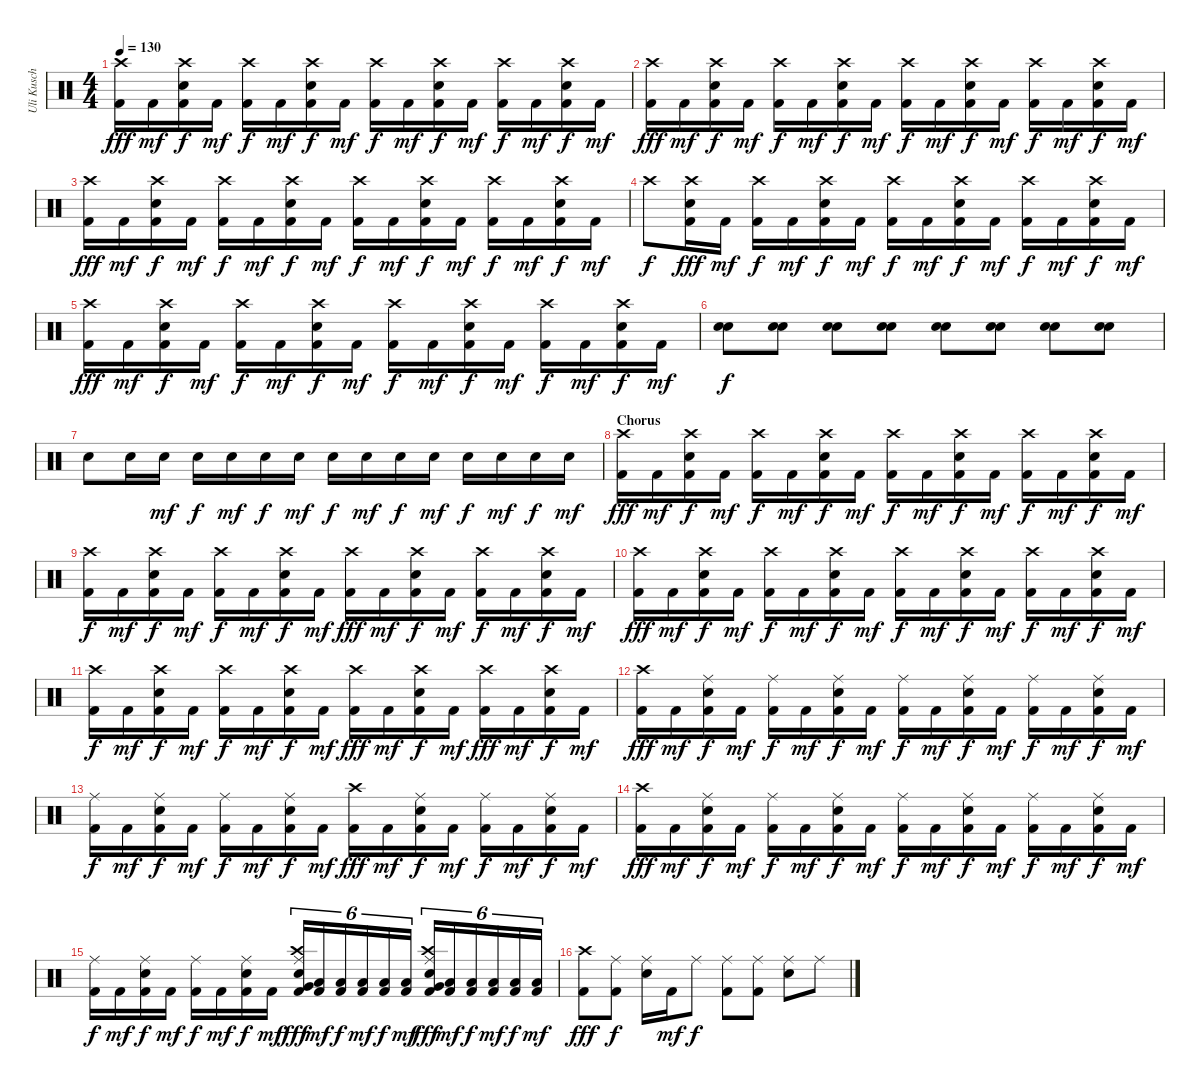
\track ("Uli Kusch" "Uli Kusch") {instrument percussion}
\staff {score}
\articulation defaults
\ts (4 4)
\tempo 130
\clef neutral
\ks c
("Kick (hit) 2" "Crash high (hit)").16{dy fff} "Kick (hit) 2".16{dy mf} ("Kick (hit) 2" "Electric Snare (hit)" "Crash high (hit)").16{dy f} "Kick (hit) 2".16{dy mf} ("Kick (hit) 2" "Crash high (hit)").16{dy f} "Kick (hit) 2".16{dy mf} ("Kick (hit) 2" "Electric Snare (hit)" "Crash high (hit)").16{dy f} "Kick (hit) 2".16{dy mf} ("Kick (hit) 2" "Crash high (hit)").16{dy f} "Kick (hit) 2".16{dy mf} ("Kick (hit) 2" "Electric Snare (hit)" "Crash high (hit)").16{dy f} "Kick (hit) 2".16{dy mf} ("Kick (hit) 2" "Crash high (hit)").16{dy f} "Kick (hit) 2".16{dy mf} ("Kick (hit) 2" "Electric Snare (hit)" "Crash high (hit)").16{dy f} "Kick (hit) 2".16{dy mf} |
("Kick (hit) 2" "Crash high (hit)").16{dy fff} "Kick (hit) 2".16{dy mf} ("Kick (hit) 2" "Electric Snare (hit)" "Crash high (hit)").16{dy f} "Kick (hit) 2".16{dy mf} ("Kick (hit) 2" "Crash high (hit)").16{dy f} "Kick (hit) 2".16{dy mf} ("Kick (hit) 2" "Electric Snare (hit)" "Crash high (hit)").16{dy f} "Kick (hit) 2".16{dy mf} ("Kick (hit) 2" "Crash high (hit)").16{dy f} "Kick (hit) 2".16{dy mf} ("Kick (hit) 2" "Electric Snare (hit)" "Crash high (hit)").16{dy f} "Kick (hit) 2".16{dy mf} ("Kick (hit) 2" "Crash high (hit)").16{dy f} "Kick (hit) 2".16{dy mf} ("Kick (hit) 2" "Electric Snare (hit)" "Crash high (hit)").16{dy f} "Kick (hit) 2".16{dy mf} |
("Kick (hit) 2" "Crash high (hit)").16{dy fff} "Kick (hit) 2".16{dy mf} ("Kick (hit) 2" "Electric Snare (hit)" "Crash high (hit)").16{dy f} "Kick (hit) 2".16{dy mf} ("Kick (hit) 2" "Crash high (hit)").16{dy f} "Kick (hit) 2".16{dy mf} ("Kick (hit) 2" "Electric Snare (hit)" "Crash high (hit)").16{dy f} "Kick (hit) 2".16{dy mf} ("Kick (hit) 2" "Crash high (hit)").16{dy f} "Kick (hit) 2".16{dy mf} ("Kick (hit) 2" "Electric Snare (hit)" "Crash high (hit)").16{dy f} "Kick (hit) 2".16{dy mf} ("Kick (hit) 2" "Crash high (hit)").16{dy f} "Kick (hit) 2".16{dy mf} ("Kick (hit) 2" "Electric Snare (hit)" "Crash high (hit)").16{dy f} "Kick (hit) 2".16{dy mf} |
"Crash high (hit)".8{dy f} ("Kick (hit) 2" "Electric Snare (hit)" "Crash high (hit)").16{dy fff} "Kick (hit) 2".16{dy mf} ("Kick (hit) 2" "Crash high (hit)").16{dy f} "Kick (hit) 2".16{dy mf} ("Kick (hit) 2" "Electric Snare (hit)" "Crash high (hit)").16{dy f} "Kick (hit) 2".16{dy mf} ("Kick (hit) 2" "Crash high (hit)").16{dy f} "Kick (hit) 2".16{dy mf} ("Kick (hit) 2" "Electric Snare (hit)" "Crash high (hit)").16{dy f} "Kick (hit) 2".16{dy mf} ("Kick (hit) 2" "Crash high (hit)").16{dy f} "Kick (hit) 2".16{dy mf} ("Kick (hit) 2" "Electric Snare (hit)" "Crash high (hit)").16{dy f} "Kick (hit) 2".16{dy mf} |
("Kick (hit) 2" "Crash high (hit)").16{dy fff} "Kick (hit) 2".16{dy mf} ("Kick (hit) 2" "Electric Snare (hit)" "Crash high (hit)").16{dy f} "Kick (hit) 2".16{dy mf} ("Kick (hit) 2" "Crash high (hit)").16{dy f} "Kick (hit) 2".16{dy mf} ("Kick (hit) 2" "Electric Snare (hit)" "Crash high (hit)").16{dy f} "Kick (hit) 2".16{dy mf} ("Kick (hit) 2" "Crash high (hit)").16{dy f} "Kick (hit) 2".16{dy mf} ("Kick (hit) 2" "Electric Snare (hit)" "Crash high (hit)").16{dy f} "Kick (hit) 2".16{dy mf} ("Kick (hit) 2" "Crash high (hit)").16{dy f} "Kick (hit) 2".16{dy mf} ("Kick (hit) 2" "Electric Snare (hit)" "Crash high (hit)").16{dy f} "Kick (hit) 2".16{dy mf} |
("Electric Snare (hit)" "Snare (hit) 2").8{dy f} ("Electric Snare (hit)" "Snare (hit) 2").8 ("Electric Snare (hit)" "Snare (hit) 2").8 ("Electric Snare (hit)" "Snare (hit) 2").8 ("Electric Snare (hit)" "Snare (hit) 2").8 ("Electric Snare (hit)" "Snare (hit) 2").8 ("Electric Snare (hit)" "Snare (hit) 2").8 ("Electric Snare (hit)" "Snare (hit) 2").8 |
"Electric Snare (hit)".8 "Electric Snare (hit)".16 "Electric Snare (hit)".16{dy mf} "Electric Snare (hit)".16{dy f} "Electric Snare (hit)".16{dy mf} "Electric Snare (hit)".16{dy f} "Electric Snare (hit)".16{dy mf} "Electric Snare (hit)".16{dy f} "Electric Snare (hit)".16{dy mf} "Electric Snare (hit)".16{dy f} "Electric Snare (hit)".16{dy mf} "Electric Snare (hit)".16{dy f} "Electric Snare (hit)".16{dy mf} "Electric Snare (hit)".16{dy f} "Electric Snare (hit)".16{dy mf} |
\section ("" "Chorus")
("Kick (hit) 2" "Crash high (hit)").16{dy fff} "Kick (hit) 2".16{dy mf} ("Kick (hit) 2" "Electric Snare (hit)" "Crash high (hit)").16{dy f} "Kick (hit) 2".16{dy mf} ("Kick (hit) 2" "Crash high (hit)").16{dy f} "Kick (hit) 2".16{dy mf} ("Kick (hit) 2" "Electric Snare (hit)" "Crash high (hit)").16{dy f} "Kick (hit) 2".16{dy mf} ("Kick (hit) 2" "Crash high (hit)").16{dy f} "Kick (hit) 2".16{dy mf} ("Kick (hit) 2" "Electric Snare (hit)" "Crash high (hit)").16{dy f} "Kick (hit) 2".16{dy mf} ("Kick (hit) 2" "Crash high (hit)").16{dy f} "Kick (hit) 2".16{dy mf} ("Kick (hit) 2" "Electric Snare (hit)" "Crash high (hit)").16{dy f} "Kick (hit) 2".16{dy mf} |
("Kick (hit) 2" "Crash high (hit)").16{dy f} "Kick (hit) 2".16{dy mf} ("Kick (hit) 2" "Electric Snare (hit)" "Crash high (hit)").16{dy f} "Kick (hit) 2".16{dy mf} ("Kick (hit) 2" "Crash high (hit)").16{dy f} "Kick (hit) 2".16{dy mf} ("Kick (hit) 2" "Electric Snare (hit)" "Crash high (hit)").16{dy f} "Kick (hit) 2".16{dy mf} ("Kick (hit) 2" "Crash high (hit)").16{dy fff} "Kick (hit) 2".16{dy mf} ("Kick (hit) 2" "Electric Snare (hit)" "Crash high (hit)").16{dy f} "Kick (hit) 2".16{dy mf} ("Kick (hit) 2" "Crash high (hit)").16{dy f} "Kick (hit) 2".16{dy mf} ("Kick (hit) 2" "Electric Snare (hit)" "Crash high (hit)").16{dy f} "Kick (hit) 2".16{dy mf} |
("Kick (hit) 2" "Crash high (hit)").16{dy fff} "Kick (hit) 2".16{dy mf} ("Kick (hit) 2" "Electric Snare (hit)" "Crash high (hit)").16{dy f} "Kick (hit) 2".16{dy mf} ("Kick (hit) 2" "Crash high (hit)").16{dy f} "Kick (hit) 2".16{dy mf} ("Kick (hit) 2" "Electric Snare (hit)" "Crash high (hit)").16{dy f} "Kick (hit) 2".16{dy mf} ("Kick (hit) 2" "Crash high (hit)").16{dy f} "Kick (hit) 2".16{dy mf} ("Kick (hit) 2" "Electric Snare (hit)" "Crash high (hit)").16{dy f} "Kick (hit) 2".16{dy mf} ("Kick (hit) 2" "Crash high (hit)").16{dy f} "Kick (hit) 2".16{dy mf} ("Kick (hit) 2" "Electric Snare (hit)" "Crash high (hit)").16{dy f} "Kick (hit) 2".16{dy mf} |
("Kick (hit) 2" "Crash high (hit)").16{dy f} "Kick (hit) 2".16{dy mf} ("Kick (hit) 2" "Electric Snare (hit)" "Crash high (hit)").16{dy f} "Kick (hit) 2".16{dy mf} ("Kick (hit) 2" "Crash high (hit)").16{dy f} "Kick (hit) 2".16{dy mf} ("Kick (hit) 2" "Electric Snare (hit)" "Crash high (hit)").16{dy f} "Kick (hit) 2".16{dy mf} ("Kick (hit) 2" "Crash high (hit)").16{dy fff} "Kick (hit) 2".16{dy mf} ("Kick (hit) 2" "Electric Snare (hit)" "Crash high (hit)").16{dy f} "Kick (hit) 2".16{dy mf} ("Kick (hit) 2" "Crash high (hit)").16{dy fff} "Kick (hit) 2".16{dy mf} ("Kick (hit) 2" "Electric Snare (hit)" "Crash high (hit)").16{dy f} "Kick (hit) 2".16{dy mf} |
("Kick (hit) 2" "Crash high (hit)").16{dy fff} "Kick (hit) 2".16{dy mf} ("Kick (hit) 2" "Electric Snare (hit)" "Ride (middle)").16{dy f} "Kick (hit) 2".16{dy mf} ("Kick (hit) 2" "Ride (middle)").16{dy f} "Kick (hit) 2".16{dy mf} ("Kick (hit) 2" "Electric Snare (hit)" "Ride (middle)").16{dy f} "Kick (hit) 2".16{dy mf} ("Kick (hit) 2" "Ride (middle)").16{dy f} "Kick (hit) 2".16{dy mf} ("Kick (hit) 2" "Electric Snare (hit)" "Ride (middle)").16{dy f} "Kick (hit) 2".16{dy mf} ("Kick (hit) 2" "Ride (middle)").16{dy f} "Kick (hit) 2".16{dy mf} ("Kick (hit) 2" "Electric Snare (hit)" "Ride (middle)").16{dy f} "Kick (hit) 2".16{dy mf} |
("Kick (hit) 2" "Ride (middle)").16{dy f} "Kick (hit) 2".16{dy mf} ("Kick (hit) 2" "Electric Snare (hit)" "Ride (middle)").16{dy f} "Kick (hit) 2".16{dy mf} ("Kick (hit) 2" "Ride (middle)").16{dy f} "Kick (hit) 2".16{dy mf} ("Kick (hit) 2" "Electric Snare (hit)" "Ride (middle)").16{dy f} "Kick (hit) 2".16{dy mf} ("Kick (hit) 2" "Crash high (hit)").16{dy fff} "Kick (hit) 2".16{dy mf} ("Kick (hit) 2" "Electric Snare (hit)" "Ride (middle)").16{dy f} "Kick (hit) 2".16{dy mf} ("Kick (hit) 2" "Ride (middle)").16{dy f} "Kick (hit) 2".16{dy mf} ("Kick (hit) 2" "Electric Snare (hit)" "Ride (middle)").16{dy f} "Kick (hit) 2".16{dy mf} |
("Kick (hit) 2" "Crash high (hit)").16{dy fff} "Kick (hit) 2".16{dy mf} ("Kick (hit) 2" "Electric Snare (hit)" "Ride (middle)").16{dy f} "Kick (hit) 2".16{dy mf} ("Kick (hit) 2" "Ride (middle)").16{dy f} "Kick (hit) 2".16{dy mf} ("Kick (hit) 2" "Electric Snare (hit)" "Ride (middle)").16{dy f} "Kick (hit) 2".16{dy mf} ("Kick (hit) 2" "Ride (middle)").16{dy f} "Kick (hit) 2".16{dy mf} ("Kick (hit) 2" "Electric Snare (hit)" "Ride (middle)").16{dy f} "Kick (hit) 2".16{dy mf} ("Kick (hit) 2" "Ride (middle)").16{dy f} "Kick (hit) 2".16{dy mf} ("Kick (hit) 2" "Electric Snare (hit)" "Ride (middle)").16{dy f} "Kick (hit) 2".16{dy mf} |
("Kick (hit) 2" "Ride (middle)").16{dy f} "Kick (hit) 2".16{dy mf} ("Kick (hit) 2" "Electric Snare (hit)" "Ride (middle)").16{dy f} "Kick (hit) 2".16{dy mf} ("Kick (hit) 2" "Ride (middle)").16{dy f} "Kick (hit) 2".16{dy mf} ("Kick (hit) 2" "Electric Snare (hit)" "Ride (middle)").16{dy f} "Kick (hit) 2".16{dy mf} ("Kick (hit) 2" "Electric Snare (hit)" "Ride (middle)" "Crash high (hit)" "Very Low Tom (hit)").16{tu (6 4) dy fff} ("Low Floor Tom (hit)" "Kick (hit) 2").16{tu (6 4) dy mf} ("Kick (hit) 2" "Low Floor Tom (hit)").16{tu (6 4) dy f} ("Kick (hit) 2" "Low Floor Tom (hit)").16{tu (6 4) dy mf} ("Low Floor Tom (hit)" "Kick (hit) 2").16{tu (6 4) dy f} ("Kick (hit) 2" "Low Floor Tom (hit)").16{tu (6 4) dy mf} ("Kick (hit) 2" "Electric Snare (hit)" "Ride (middle)" "Crash high (hit)" "Very Low Tom (hit)").16{tu (6 4) dy fff} ("Low Floor Tom (hit)" "Kick (hit) 2").16{tu (6 4) dy mf} ("Kick (hit) 2" "Low Floor Tom (hit)").16{tu (6 4) dy f} ("Kick (hit) 2" "Low Floor Tom (hit)").16{tu (6 4) dy mf} ("Low Floor Tom (hit)" "Kick (hit) 2").16{tu (6 4) dy f} ("Kick (hit) 2" "Low Floor Tom (hit)").16{tu (6 4) dy mf} |
("Kick (hit) 2" "Crash high (hit)").8{dy fff} ("Kick (hit) 2" "Ride (middle)").8{dy f} ("Electric Snare (hit)" "Ride (middle)").16 "Kick (hit) 2".16{dy mf} "Ride (middle)".8{dy f} ("Kick (hit) 2" "Ride (middle)").8 ("Kick (hit) 2" "Ride (middle)").8 ("Electric Snare (hit)" "Ride (middle)").8 "Ride (middle)".8
